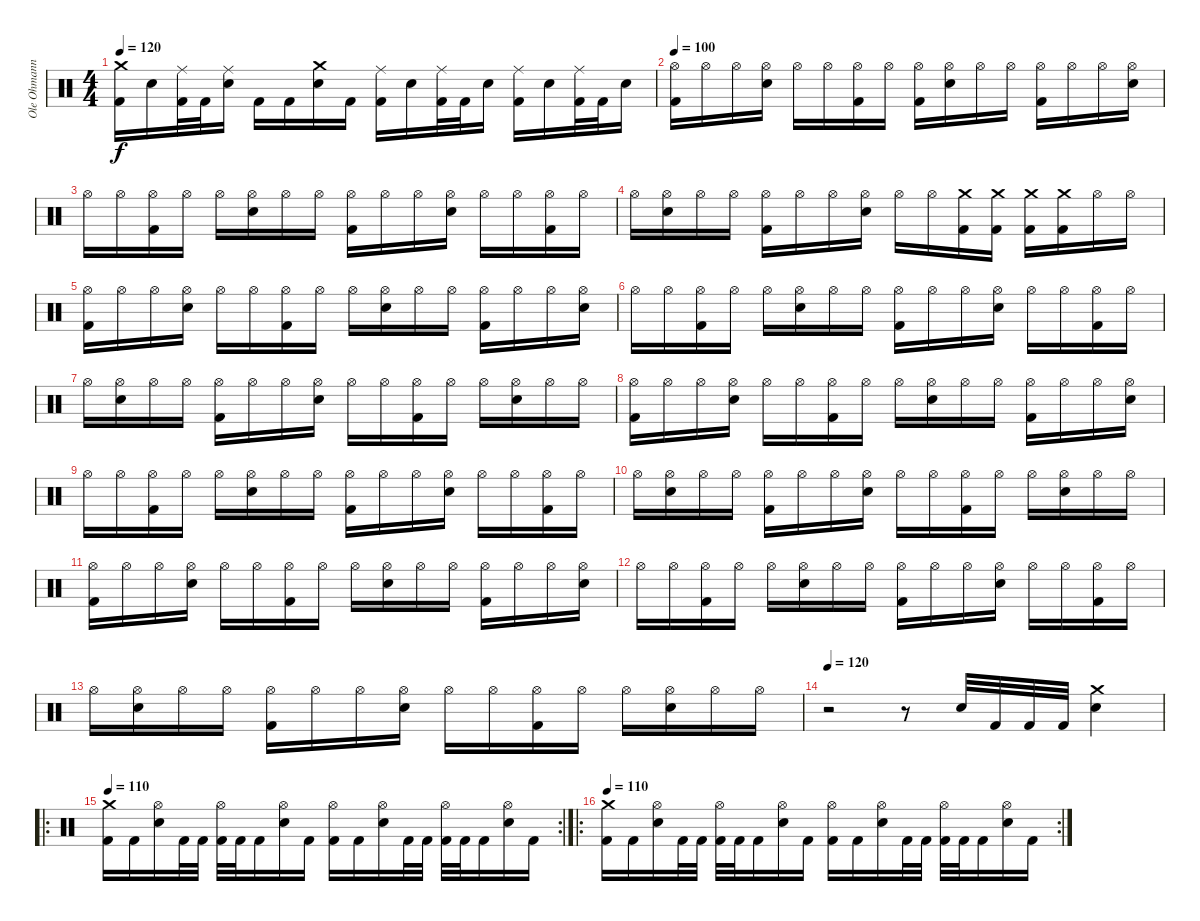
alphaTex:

\track ("Ole Ohmann" "Ole Ohmann") {instrument percussion}
\staff {score}
\articulation defaults
\ts (4 4)
\tempo 120
\clef neutral
\ks c
("Crash medium (hit)" "Kick (hit) 2").16{dy f} "Electric Snare (hit)".16 ("Ride (middle)" "Kick (hit) 2").32 "Kick (hit) 2".32 ("Ride (middle)" "Electric Snare (hit)").16 "Kick (hit) 2".16 "Kick (hit) 2".16 ("Crash medium (hit)" "Electric Snare (hit)").16 "Kick (hit) 2".16 ("Ride (middle)" "Kick (hit) 2").16 "Electric Snare (hit)".16 ("Ride (middle)" "Kick (hit) 2").32 "Kick (hit) 2".32 "Electric Snare (hit)".16 ("Ride (middle)" "Kick (hit) 2").16 "Electric Snare (hit)".16 ("Ride (middle)" "Kick (hit) 2").32 "Kick (hit) 2".32 "Electric Snare (hit)".16 |
\tempo 100
("Hi-Hat (open)" "Kick (hit) 2").16 "Hi-Hat (open)".16 "Hi-Hat (open)".16 ("Hi-Hat (open)" "Electric Snare (hit)").16 "Hi-Hat (open)".16 "Hi-Hat (open)".16 ("Hi-Hat (open)" "Kick (hit) 2").16 "Hi-Hat (open)".16 ("Hi-Hat (open)" "Kick (hit) 2").16 ("Hi-Hat (open)" "Electric Snare (hit)").16 "Hi-Hat (open)".16 "Hi-Hat (open)".16 ("Hi-Hat (open)" "Kick (hit) 2").16 "Hi-Hat (open)".16 "Hi-Hat (open)".16 ("Hi-Hat (open)" "Electric Snare (hit)").16 |
"Hi-Hat (open)".16 "Hi-Hat (open)".16 ("Hi-Hat (open)" "Kick (hit) 2").16 "Hi-Hat (open)".16 "Hi-Hat (open)".16 ("Hi-Hat (open)" "Electric Snare (hit)").16 "Hi-Hat (open)".16 "Hi-Hat (open)".16 ("Hi-Hat (open)" "Kick (hit) 2").16 "Hi-Hat (open)".16 "Hi-Hat (open)".16 ("Hi-Hat (open)" "Electric Snare (hit)").16 "Hi-Hat (open)".16 "Hi-Hat (open)".16 ("Hi-Hat (open)" "Kick (hit) 2").16 "Hi-Hat (open)".16 |
"Hi-Hat (open)".16 ("Hi-Hat (open)" "Electric Snare (hit)").16 "Hi-Hat (open)".16 "Hi-Hat (open)".16 ("Hi-Hat (open)" "Kick (hit) 2").16 "Hi-Hat (open)".16 "Hi-Hat (open)".16 ("Hi-Hat (open)" "Electric Snare (hit)").16 "Hi-Hat (open)".16 "Hi-Hat (open)".16 ("Crash medium (hit)" "Kick (hit) 2").16 ("Crash medium (hit)" "Kick (hit) 2").16 ("Crash medium (hit)" "Kick (hit) 2").16 ("Crash medium (hit)" "Kick (hit) 2").16 "Hi-Hat (open)".16 "Hi-Hat (open)".16 |
("Hi-Hat (open)" "Kick (hit) 2").16 "Hi-Hat (open)".16 "Hi-Hat (open)".16 ("Hi-Hat (open)" "Electric Snare (hit)").16 "Hi-Hat (open)".16 "Hi-Hat (open)".16 ("Hi-Hat (open)" "Kick (hit) 2").16 "Hi-Hat (open)".16 "Hi-Hat (open)".16 ("Hi-Hat (open)" "Electric Snare (hit)").16 "Hi-Hat (open)".16 "Hi-Hat (open)".16 ("Hi-Hat (open)" "Kick (hit) 2").16 "Hi-Hat (open)".16 "Hi-Hat (open)".16 ("Hi-Hat (open)" "Electric Snare (hit)").16 |
"Hi-Hat (open)".16 "Hi-Hat (open)".16 ("Hi-Hat (open)" "Kick (hit) 2").16 "Hi-Hat (open)".16 "Hi-Hat (open)".16 ("Hi-Hat (open)" "Electric Snare (hit)").16 "Hi-Hat (open)".16 "Hi-Hat (open)".16 ("Hi-Hat (open)" "Kick (hit) 2").16 "Hi-Hat (open)".16 "Hi-Hat (open)".16 ("Hi-Hat (open)" "Electric Snare (hit)").16 "Hi-Hat (open)".16 "Hi-Hat (open)".16 ("Hi-Hat (open)" "Kick (hit) 2").16 "Hi-Hat (open)".16 |
"Hi-Hat (open)".16 ("Hi-Hat (open)" "Electric Snare (hit)").16 "Hi-Hat (open)".16 "Hi-Hat (open)".16 ("Hi-Hat (open)" "Kick (hit) 2").16 "Hi-Hat (open)".16 "Hi-Hat (open)".16 ("Hi-Hat (open)" "Electric Snare (hit)").16 "Hi-Hat (open)".16 "Hi-Hat (open)".16 ("Hi-Hat (open)" "Kick (hit) 2").16 "Hi-Hat (open)".16 "Hi-Hat (open)".16 ("Hi-Hat (open)" "Electric Snare (hit)").16 "Hi-Hat (open)".16 "Hi-Hat (open)".16 |
("Hi-Hat (open)" "Kick (hit) 2").16 "Hi-Hat (open)".16 "Hi-Hat (open)".16 ("Hi-Hat (open)" "Electric Snare (hit)").16 "Hi-Hat (open)".16 "Hi-Hat (open)".16 ("Hi-Hat (open)" "Kick (hit) 2").16 "Hi-Hat (open)".16 "Hi-Hat (open)".16 ("Hi-Hat (open)" "Electric Snare (hit)").16 "Hi-Hat (open)".16 "Hi-Hat (open)".16 ("Hi-Hat (open)" "Kick (hit) 2").16 "Hi-Hat (open)".16 "Hi-Hat (open)".16 ("Hi-Hat (open)" "Electric Snare (hit)").16 |
"Hi-Hat (open)".16 "Hi-Hat (open)".16 ("Hi-Hat (open)" "Kick (hit) 2").16 "Hi-Hat (open)".16 "Hi-Hat (open)".16 ("Hi-Hat (open)" "Electric Snare (hit)").16 "Hi-Hat (open)".16 "Hi-Hat (open)".16 ("Hi-Hat (open)" "Kick (hit) 2").16 "Hi-Hat (open)".16 "Hi-Hat (open)".16 ("Hi-Hat (open)" "Electric Snare (hit)").16 "Hi-Hat (open)".16 "Hi-Hat (open)".16 ("Hi-Hat (open)" "Kick (hit) 2").16 "Hi-Hat (open)".16 |
"Hi-Hat (open)".16 ("Hi-Hat (open)" "Electric Snare (hit)").16 "Hi-Hat (open)".16 "Hi-Hat (open)".16 ("Hi-Hat (open)" "Kick (hit) 2").16 "Hi-Hat (open)".16 "Hi-Hat (open)".16 ("Hi-Hat (open)" "Electric Snare (hit)").16 "Hi-Hat (open)".16 "Hi-Hat (open)".16 ("Hi-Hat (open)" "Kick (hit) 2").16 "Hi-Hat (open)".16 "Hi-Hat (open)".16 ("Hi-Hat (open)" "Electric Snare (hit)").16 "Hi-Hat (open)".16 "Hi-Hat (open)".16 |
("Hi-Hat (open)" "Kick (hit) 2").16 "Hi-Hat (open)".16 "Hi-Hat (open)".16 ("Hi-Hat (open)" "Electric Snare (hit)").16 "Hi-Hat (open)".16 "Hi-Hat (open)".16 ("Hi-Hat (open)" "Kick (hit) 2").16 "Hi-Hat (open)".16 "Hi-Hat (open)".16 ("Hi-Hat (open)" "Electric Snare (hit)").16 "Hi-Hat (open)".16 "Hi-Hat (open)".16 ("Hi-Hat (open)" "Kick (hit) 2").16 "Hi-Hat (open)".16 "Hi-Hat (open)".16 ("Hi-Hat (open)" "Electric Snare (hit)").16 |
"Hi-Hat (open)".16 "Hi-Hat (open)".16 ("Hi-Hat (open)" "Kick (hit) 2").16 "Hi-Hat (open)".16 "Hi-Hat (open)".16 ("Hi-Hat (open)" "Electric Snare (hit)").16 "Hi-Hat (open)".16 "Hi-Hat (open)".16 ("Hi-Hat (open)" "Kick (hit) 2").16 "Hi-Hat (open)".16 "Hi-Hat (open)".16 ("Hi-Hat (open)" "Electric Snare (hit)").16 "Hi-Hat (open)".16 "Hi-Hat (open)".16 ("Hi-Hat (open)" "Kick (hit) 2").16 "Hi-Hat (open)".16 |
"Hi-Hat (open)".16 ("Hi-Hat (open)" "Electric Snare (hit)").16 "Hi-Hat (open)".16 "Hi-Hat (open)".16 ("Hi-Hat (open)" "Kick (hit) 2").16 "Hi-Hat (open)".16 "Hi-Hat (open)".16 ("Hi-Hat (open)" "Electric Snare (hit)").16 "Hi-Hat (open)".16 "Hi-Hat (open)".16 ("Hi-Hat (open)" "Kick (hit) 2").16 "Hi-Hat (open)".16 "Hi-Hat (open)".16 ("Hi-Hat (open)" "Electric Snare (hit)").16 "Hi-Hat (open)".16 "Hi-Hat (open)".16 |
\tempo 120
r.2 r.8 "Electric Snare (hit)".32 "Kick (hit) 2".32 "Kick (hit) 2".32 "Kick (hit) 2".32 ("Crash medium (hit)" "Electric Snare (hit)").4 |
\ro
\rc 2
\tempo 110
("Crash medium (hit)" "Kick (hit) 2").16 "Kick (hit) 2".16 ("Hi-Hat (open)" "Electric Snare (hit)").16 "Kick (hit) 2".32 "Kick (hit) 2".32 ("Hi-Hat (open)" "Kick (hit) 2").32 "Kick (hit) 2".32 "Kick (hit) 2".16 ("Hi-Hat (open)" "Electric Snare (hit)").16 "Kick (hit) 2".16 ("Hi-Hat (open)" "Kick (hit) 2").16 "Kick (hit) 2".16 ("Hi-Hat (open)" "Electric Snare (hit)").16 "Kick (hit) 2".32 "Kick (hit) 2".32 ("Hi-Hat (open)" "Kick (hit) 2").32 "Kick (hit) 2".32 "Kick (hit) 2".16 ("Hi-Hat (open)" "Electric Snare (hit)").16 "Kick (hit) 2".16 |
\ro
\rc 2
\tempo 110
("Crash medium (hit)" "Kick (hit) 2").16 "Kick (hit) 2".16 ("Hi-Hat (open)" "Electric Snare (hit)").16 "Kick (hit) 2".32 "Kick (hit) 2".32 ("Hi-Hat (open)" "Kick (hit) 2").32 "Kick (hit) 2".32 "Kick (hit) 2".16 ("Hi-Hat (open)" "Electric Snare (hit)").16 "Kick (hit) 2".16 ("Hi-Hat (open)" "Kick (hit) 2").16 "Kick (hit) 2".16 ("Hi-Hat (open)" "Electric Snare (hit)").16 "Kick (hit) 2".32 "Kick (hit) 2".32 ("Hi-Hat (open)" "Kick (hit) 2").32 "Kick (hit) 2".32 "Kick (hit) 2".16 ("Hi-Hat (open)" "Electric Snare (hit)").16 "Kick (hit) 2".16
